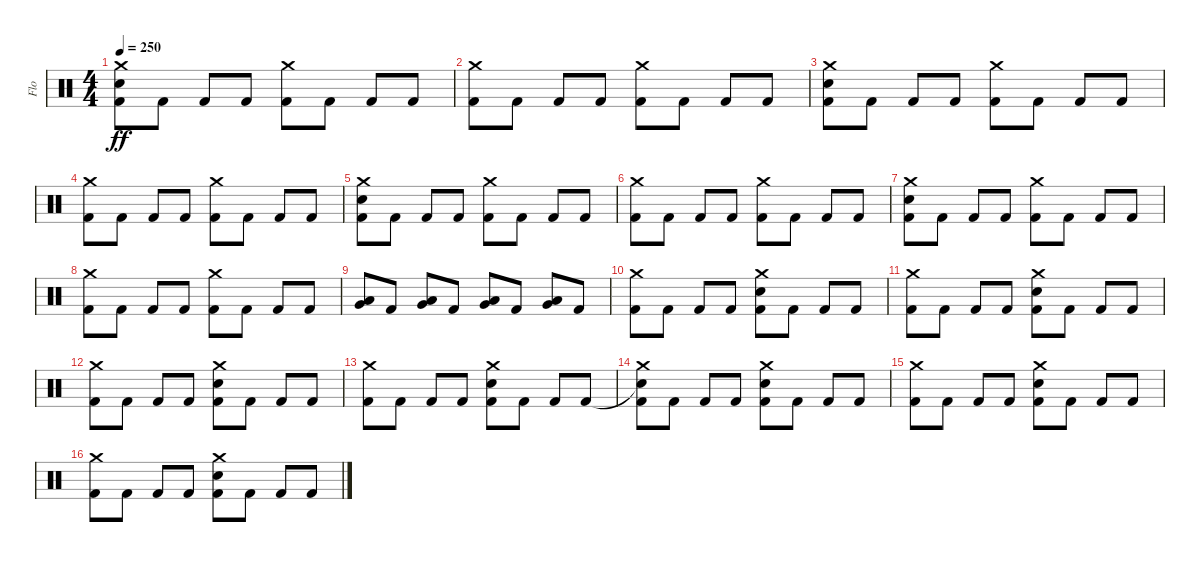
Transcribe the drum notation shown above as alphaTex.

\track ("Flo" "Flo") {instrument percussion}
\staff {score}
\articulation defaults
\ts (4 4)
\tempo 250
\clef neutral
\ks c
("Crash medium (hit)" "Electric Snare (hit)" "Kick (hit) 2").8{dy ff} "Kick (hit) 2".8 "Kick (hit) 2".8 "Kick (hit) 2".8 ("Crash medium (hit)" "Kick (hit) 2").8 "Kick (hit) 2".8 "Kick (hit) 2".8 "Kick (hit) 2".8 |
("Crash medium (hit)" "Kick (hit) 2").8 "Kick (hit) 2".8 "Kick (hit) 2".8 "Kick (hit) 2".8 ("Crash medium (hit)" "Kick (hit) 2").8 "Kick (hit) 2".8 "Kick (hit) 2".8 "Kick (hit) 2".8 |
("Crash medium (hit)" "Electric Snare (hit)" "Kick (hit) 2").8 "Kick (hit) 2".8 "Kick (hit) 2".8 "Kick (hit) 2".8 ("Crash medium (hit)" "Kick (hit) 2").8 "Kick (hit) 2".8 "Kick (hit) 2".8 "Kick (hit) 2".8 |
("Crash medium (hit)" "Kick (hit) 2").8 "Kick (hit) 2".8 "Kick (hit) 2".8 "Kick (hit) 2".8 ("Crash medium (hit)" "Kick (hit) 2").8 "Kick (hit) 2".8 "Kick (hit) 2".8 "Kick (hit) 2".8 |
("Crash medium (hit)" "Electric Snare (hit)" "Kick (hit) 2").8 "Kick (hit) 2".8 "Kick (hit) 2".8 "Kick (hit) 2".8 ("Crash medium (hit)" "Kick (hit) 2").8 "Kick (hit) 2".8 "Kick (hit) 2".8 "Kick (hit) 2".8 |
("Crash medium (hit)" "Kick (hit) 2").8 "Kick (hit) 2".8 "Kick (hit) 2".8 "Kick (hit) 2".8 ("Crash medium (hit)" "Kick (hit) 2").8 "Kick (hit) 2".8 "Kick (hit) 2".8 "Kick (hit) 2".8 |
("Crash medium (hit)" "Electric Snare (hit)" "Kick (hit) 2").8 "Kick (hit) 2".8 "Kick (hit) 2".8 "Kick (hit) 2".8 ("Crash medium (hit)" "Kick (hit) 2").8 "Kick (hit) 2".8 "Kick (hit) 2".8 "Kick (hit) 2".8 |
("Crash medium (hit)" "Kick (hit) 2").8 "Kick (hit) 2".8 "Kick (hit) 2".8 "Kick (hit) 2".8 ("Crash medium (hit)" "Kick (hit) 2").8 "Kick (hit) 2".8 "Kick (hit) 2".8 "Kick (hit) 2".8 |
("Low Tom (hit)" "Very Low Tom (hit)").8 "Kick (hit) 2".8 ("Low Tom (hit)" "Very Low Tom (hit)").8 "Kick (hit) 2".8 ("Low Tom (hit)" "Very Low Tom (hit)").8 "Kick (hit) 2".8 ("Low Tom (hit)" "Very Low Tom (hit)").8 "Kick (hit) 2".8 |
("Crash medium (hit)" "Kick (hit) 2").8 "Kick (hit) 2".8 "Kick (hit) 2".8 "Kick (hit) 2".8 ("Crash medium (hit)" "Electric Snare (hit)" "Kick (hit) 2").8 "Kick (hit) 2".8 "Kick (hit) 2".8 "Kick (hit) 2".8 |
("Crash medium (hit)" "Kick (hit) 2").8 "Kick (hit) 2".8 "Kick (hit) 2".8 "Kick (hit) 2".8 ("Crash medium (hit)" "Electric Snare (hit)" "Kick (hit) 2").8 "Kick (hit) 2".8 "Kick (hit) 2".8 "Kick (hit) 2".8 |
("Crash medium (hit)" "Kick (hit) 2").8 "Kick (hit) 2".8 "Kick (hit) 2".8 "Kick (hit) 2".8 ("Crash medium (hit)" "Electric Snare (hit)" "Kick (hit) 2").8 "Kick (hit) 2".8 "Kick (hit) 2".8 "Kick (hit) 2".8 |
("Crash medium (hit)" "Kick (hit) 2").8 "Kick (hit) 2".8 "Kick (hit) 2".8 "Kick (hit) 2".8 ("Crash medium (hit)" "Electric Snare (hit)" "Kick (hit) 2").8 "Kick (hit) 2".8 "Kick (hit) 2".8 "Kick (hit) 2".8 |
("Snare (hit)"{t} "Crash medium (hit)" "Kick (hit) 2").8 "Kick (hit) 2".8 "Kick (hit) 2".8 "Kick (hit) 2".8 ("Crash medium (hit)" "Electric Snare (hit)" "Kick (hit) 2").8 "Kick (hit) 2".8 "Kick (hit) 2".8 "Kick (hit) 2".8 |
("Crash medium (hit)" "Kick (hit) 2").8 "Kick (hit) 2".8 "Kick (hit) 2".8 "Kick (hit) 2".8 ("Crash medium (hit)" "Electric Snare (hit)" "Kick (hit) 2").8 "Kick (hit) 2".8 "Kick (hit) 2".8 "Kick (hit) 2".8 |
("Crash medium (hit)" "Kick (hit) 2").8 "Kick (hit) 2".8 "Kick (hit) 2".8 "Kick (hit) 2".8 ("Crash medium (hit)" "Electric Snare (hit)" "Kick (hit) 2").8 "Kick (hit) 2".8 "Kick (hit) 2".8 "Kick (hit) 2".8
